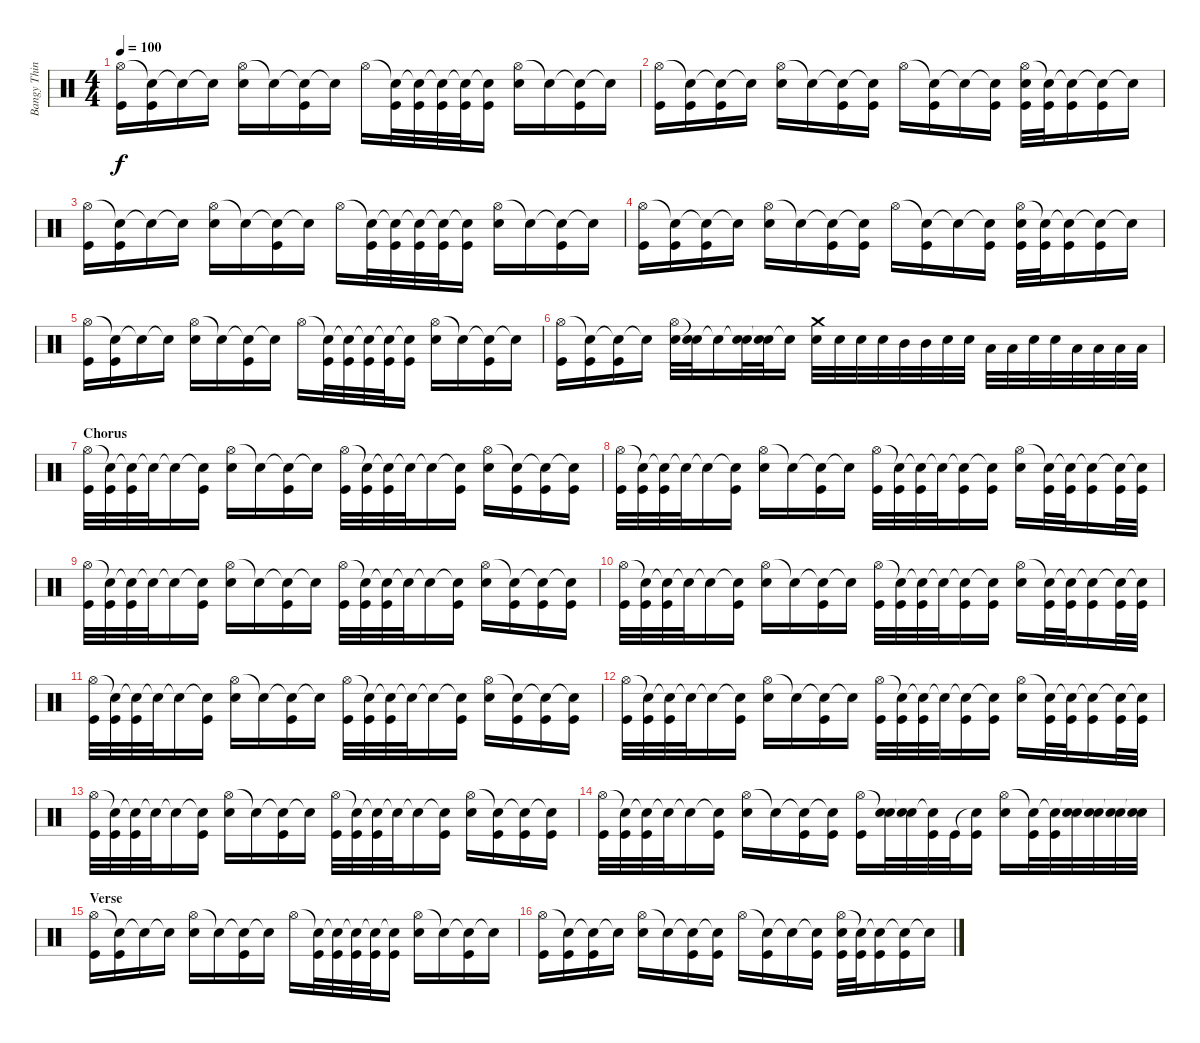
\track ("Bangy Things" "Bangy Thin") {instrument percussion}
\staff {score}
\articulation defaults
\ts (4 4)
\tempo 100
\clef neutral
\ks c
("Hi-Hat (open)" "Kick (hit)").16{dy f} ("Snare (hit)"{t} "Kick (hit)").16 "Snare (hit)"{t}.16 "Snare (hit)"{t}.16 ("Hi-Hat (open)" "Electric Snare (hit)").16 "Snare (hit)"{t}.16 ("Snare (hit)"{t} "Kick (hit)").16 "Snare (hit)"{t}.16 "Hi-Hat (open)".16 ("Snare (hit)"{t} "Kick (hit)").32 ("Snare (hit)"{t} "Kick (hit)").32 ("Snare (hit)"{t} "Kick (hit)").32 ("Snare (hit)"{t} "Kick (hit)").32 ("Snare (hit)"{t} "Kick (hit)").16 ("Hi-Hat (open)" "Electric Snare (hit)").16 "Snare (hit)"{t}.16 ("Snare (hit)"{t} "Kick (hit)").16 "Snare (hit)"{t}.16 |
("Hi-Hat (open)" "Kick (hit)").16 ("Snare (hit)"{t} "Kick (hit)").16 ("Snare (hit)"{t} "Kick (hit)").16 "Snare (hit)"{t}.16 ("Hi-Hat (open)" "Electric Snare (hit)").16 "Snare (hit)"{t}.16 ("Snare (hit)"{t} "Kick (hit)").16 ("Snare (hit)"{t} "Kick (hit)").16 "Hi-Hat (open)".16 ("Snare (hit)"{t} "Kick (hit)").16 "Snare (hit)"{t}.16 ("Snare (hit)"{t} "Kick (hit)").16 ("Hi-Hat (open)" "Electric Snare (hit)" "Kick (hit)").32 ("Snare (hit)"{t} "Kick (hit)").32 ("Snare (hit)"{t} "Kick (hit)").16 ("Snare (hit)"{t} "Kick (hit)").16 "Snare (hit)"{t}.16 |
("Hi-Hat (open)" "Kick (hit)").16 ("Snare (hit)"{t} "Kick (hit)").16 "Snare (hit)"{t}.16 "Snare (hit)"{t}.16 ("Hi-Hat (open)" "Electric Snare (hit)").16 "Snare (hit)"{t}.16 ("Snare (hit)"{t} "Kick (hit)").16 "Snare (hit)"{t}.16 "Hi-Hat (open)".16 ("Snare (hit)"{t} "Kick (hit)").32 ("Snare (hit)"{t} "Kick (hit)").32 ("Snare (hit)"{t} "Kick (hit)").32 ("Snare (hit)"{t} "Kick (hit)").32 ("Snare (hit)"{t} "Kick (hit)").16 ("Hi-Hat (open)" "Electric Snare (hit)").16 "Snare (hit)"{t}.16 ("Snare (hit)"{t} "Kick (hit)").16 "Snare (hit)"{t}.16 |
("Hi-Hat (open)" "Kick (hit)").16 ("Snare (hit)"{t} "Kick (hit)").16 ("Snare (hit)"{t} "Kick (hit)").16 "Snare (hit)"{t}.16 ("Hi-Hat (open)" "Electric Snare (hit)").16 "Snare (hit)"{t}.16 ("Snare (hit)"{t} "Kick (hit)").16 ("Snare (hit)"{t} "Kick (hit)").16 "Hi-Hat (open)".16 ("Snare (hit)"{t} "Kick (hit)").16 "Snare (hit)"{t}.16 ("Snare (hit)"{t} "Kick (hit)").16 ("Hi-Hat (open)" "Electric Snare (hit)" "Kick (hit)").32 ("Snare (hit)"{t} "Kick (hit)").32 ("Snare (hit)"{t} "Kick (hit)").16 ("Snare (hit)"{t} "Kick (hit)").16 "Snare (hit)"{t}.16 |
("Hi-Hat (open)" "Kick (hit)").16 ("Snare (hit)"{t} "Kick (hit)").16 "Snare (hit)"{t}.16 "Snare (hit)"{t}.16 ("Hi-Hat (open)" "Electric Snare (hit)").16 "Snare (hit)"{t}.16 ("Snare (hit)"{t} "Kick (hit)").16 "Snare (hit)"{t}.16 "Hi-Hat (open)".16 ("Snare (hit)"{t} "Kick (hit)").32 ("Snare (hit)"{t} "Kick (hit)").32 ("Snare (hit)"{t} "Kick (hit)").32 ("Snare (hit)"{t} "Kick (hit)").32 ("Snare (hit)"{t} "Kick (hit)").16 ("Hi-Hat (open)" "Electric Snare (hit)").16 "Snare (hit)"{t}.16 ("Snare (hit)"{t} "Kick (hit)").16 "Snare (hit)"{t}.16 |
("Hi-Hat (open)" "Kick (hit)").16 ("Snare (hit)"{t} "Kick (hit)").16 ("Snare (hit)"{t} "Kick (hit)").16 "Snare (hit)"{t}.16 ("Hi-Hat (open)" "Electric Snare (hit)").32 ("Snare (hit)"{t} "Electric Snare (hit)").32 "Snare (hit)"{t}.16 ("Snare (hit)"{t} "Electric Snare (hit)").32 ("Snare (hit)"{t} "Electric Snare (hit)").32 "Snare (hit)"{t}.16 ("Crash medium (hit)" "Electric Snare (hit)").32 "Electric Snare (hit)".32 "Electric Snare (hit)".32 "Electric Snare (hit)".32 "Mid Tom (hit)".32 "Mid Tom (hit)".32 "Electric Snare (hit)".32 "Electric Snare (hit)".32 "Low Tom (hit)".32 "Low Tom (hit)".32 "Electric Snare (hit)".32 "Electric Snare (hit)".32 "Low Floor Tom (hit)".32 "Low Floor Tom (hit)".32 "Low Floor Tom (hit)".32 "Low Floor Tom (hit)".32 |
\section ("" "Chorus")
("Hi-Hat (open)" "Kick (hit)").32 ("Snare (hit)"{t} "Kick (hit)").32 ("Snare (hit)"{t} "Kick (hit)").32 "Snare (hit)"{t}.32 "Snare (hit)"{t}.16 ("Snare (hit)"{t} "Kick (hit)").16 ("Hi-Hat (open)" "Electric Snare (hit)").16 "Snare (hit)"{t}.16 ("Snare (hit)"{t} "Kick (hit)").16 "Snare (hit)"{t}.16 ("Hi-Hat (open)" "Kick (hit)").32 ("Snare (hit)"{t} "Kick (hit)").32 ("Snare (hit)"{t} "Kick (hit)").32 "Snare (hit)"{t}.32 "Snare (hit)"{t}.16 ("Snare (hit)"{t} "Kick (hit)").16 ("Hi-Hat (open)" "Electric Snare (hit)").16 ("Snare (hit)"{t} "Kick (hit)").16 ("Snare (hit)"{t} "Kick (hit)").16 ("Snare (hit)"{t} "Kick (hit)").16 |
("Hi-Hat (open)" "Kick (hit)").32 ("Snare (hit)"{t} "Kick (hit)").32 ("Snare (hit)"{t} "Kick (hit)").32 "Snare (hit)"{t}.32 "Snare (hit)"{t}.16 ("Snare (hit)"{t} "Kick (hit)").16 ("Hi-Hat (open)" "Electric Snare (hit)").16 "Snare (hit)"{t}.16 ("Snare (hit)"{t} "Kick (hit)").16 "Snare (hit)"{t}.16 ("Hi-Hat (open)" "Kick (hit)").32 ("Snare (hit)"{t} "Kick (hit)").32 ("Snare (hit)"{t} "Kick (hit)").32 "Snare (hit)"{t}.32 ("Snare (hit)"{t} "Kick (hit)").16 ("Snare (hit)"{t} "Kick (hit)").16 ("Hi-Hat (open)" "Electric Snare (hit)").16 ("Snare (hit)"{t} "Kick (hit)").32 ("Snare (hit)"{t} "Kick (hit)").32 ("Snare (hit)"{t} "Kick (hit)").16 ("Snare (hit)"{t} "Kick (hit)").32 ("Snare (hit)"{t} "Kick (hit)").32 |
("Hi-Hat (open)" "Kick (hit)").32 ("Snare (hit)"{t} "Kick (hit)").32 ("Snare (hit)"{t} "Kick (hit)").32 "Snare (hit)"{t}.32 "Snare (hit)"{t}.16 ("Snare (hit)"{t} "Kick (hit)").16 ("Hi-Hat (open)" "Electric Snare (hit)").16 "Snare (hit)"{t}.16 ("Snare (hit)"{t} "Kick (hit)").16 "Snare (hit)"{t}.16 ("Hi-Hat (open)" "Kick (hit)").32 ("Snare (hit)"{t} "Kick (hit)").32 ("Snare (hit)"{t} "Kick (hit)").32 "Snare (hit)"{t}.32 "Snare (hit)"{t}.16 ("Snare (hit)"{t} "Kick (hit)").16 ("Hi-Hat (open)" "Electric Snare (hit)").16 ("Snare (hit)"{t} "Kick (hit)").16 ("Snare (hit)"{t} "Kick (hit)").16 ("Snare (hit)"{t} "Kick (hit)").16 |
("Hi-Hat (open)" "Kick (hit)").32 ("Snare (hit)"{t} "Kick (hit)").32 ("Snare (hit)"{t} "Kick (hit)").32 "Snare (hit)"{t}.32 "Snare (hit)"{t}.16 ("Snare (hit)"{t} "Kick (hit)").16 ("Hi-Hat (open)" "Electric Snare (hit)").16 "Snare (hit)"{t}.16 ("Snare (hit)"{t} "Kick (hit)").16 "Snare (hit)"{t}.16 ("Hi-Hat (open)" "Kick (hit)").32 ("Snare (hit)"{t} "Kick (hit)").32 ("Snare (hit)"{t} "Kick (hit)").32 "Snare (hit)"{t}.32 ("Snare (hit)"{t} "Kick (hit)").16 ("Snare (hit)"{t} "Kick (hit)").16 ("Hi-Hat (open)" "Electric Snare (hit)").16 ("Snare (hit)"{t} "Kick (hit)").32 ("Snare (hit)"{t} "Kick (hit)").32 ("Snare (hit)"{t} "Kick (hit)").16 ("Snare (hit)"{t} "Kick (hit)").32 ("Snare (hit)"{t} "Kick (hit)").32 |
("Hi-Hat (open)" "Kick (hit)").32 ("Snare (hit)"{t} "Kick (hit)").32 ("Snare (hit)"{t} "Kick (hit)").32 "Snare (hit)"{t}.32 "Snare (hit)"{t}.16 ("Snare (hit)"{t} "Kick (hit)").16 ("Hi-Hat (open)" "Electric Snare (hit)").16 "Snare (hit)"{t}.16 ("Snare (hit)"{t} "Kick (hit)").16 "Snare (hit)"{t}.16 ("Hi-Hat (open)" "Kick (hit)").32 ("Snare (hit)"{t} "Kick (hit)").32 ("Snare (hit)"{t} "Kick (hit)").32 "Snare (hit)"{t}.32 "Snare (hit)"{t}.16 ("Snare (hit)"{t} "Kick (hit)").16 ("Hi-Hat (open)" "Electric Snare (hit)").16 ("Snare (hit)"{t} "Kick (hit)").16 ("Snare (hit)"{t} "Kick (hit)").16 ("Snare (hit)"{t} "Kick (hit)").16 |
("Hi-Hat (open)" "Kick (hit)").32 ("Snare (hit)"{t} "Kick (hit)").32 ("Snare (hit)"{t} "Kick (hit)").32 "Snare (hit)"{t}.32 "Snare (hit)"{t}.16 ("Snare (hit)"{t} "Kick (hit)").16 ("Hi-Hat (open)" "Electric Snare (hit)").16 "Snare (hit)"{t}.16 ("Snare (hit)"{t} "Kick (hit)").16 "Snare (hit)"{t}.16 ("Hi-Hat (open)" "Kick (hit)").32 ("Snare (hit)"{t} "Kick (hit)").32 ("Snare (hit)"{t} "Kick (hit)").32 "Snare (hit)"{t}.32 ("Snare (hit)"{t} "Kick (hit)").16 ("Snare (hit)"{t} "Kick (hit)").16 ("Hi-Hat (open)" "Electric Snare (hit)").16 ("Snare (hit)"{t} "Kick (hit)").32 ("Snare (hit)"{t} "Kick (hit)").32 ("Snare (hit)"{t} "Kick (hit)").16 ("Snare (hit)"{t} "Kick (hit)").32 ("Snare (hit)"{t} "Kick (hit)").32 |
("Hi-Hat (open)" "Kick (hit)").32 ("Snare (hit)"{t} "Kick (hit)").32 ("Snare (hit)"{t} "Kick (hit)").32 "Snare (hit)"{t}.32 "Snare (hit)"{t}.16 ("Snare (hit)"{t} "Kick (hit)").16 ("Hi-Hat (open)" "Electric Snare (hit)").16 "Snare (hit)"{t}.16 ("Snare (hit)"{t} "Kick (hit)").16 "Snare (hit)"{t}.16 ("Hi-Hat (open)" "Kick (hit)").32 ("Snare (hit)"{t} "Kick (hit)").32 ("Snare (hit)"{t} "Kick (hit)").32 "Snare (hit)"{t}.32 "Snare (hit)"{t}.16 ("Snare (hit)"{t} "Kick (hit)").16 ("Hi-Hat (open)" "Electric Snare (hit)").16 ("Snare (hit)"{t} "Kick (hit)").16 ("Snare (hit)"{t} "Kick (hit)").16 ("Snare (hit)"{t} "Kick (hit)").16 |
("Hi-Hat (open)" "Kick (hit)").32 ("Snare (hit)"{t} "Kick (hit)").32 ("Snare (hit)"{t} "Kick (hit)").32 "Snare (hit)"{t}.32 "Snare (hit)"{t}.16 ("Snare (hit)"{t} "Kick (hit)").16 ("Hi-Hat (open)" "Electric Snare (hit)").16 "Snare (hit)"{t}.16 ("Snare (hit)"{t} "Kick (hit)").16 ("Snare (hit)"{t} "Kick (hit)").16 ("Hi-Hat (open)" "Kick (hit)").16 ("Snare (hit)"{t} "Electric Snare (hit)").32 ("Snare (hit)"{t} "Electric Snare (hit)").32 ("Snare (hit)"{t} "Kick (hit)").32 "Kick (hit)".32 ("Snare (hit)"{t} "Kick (hit)").16 ("Hi-Hat (open)" "Electric Snare (hit)").16 ("Snare (hit)"{t} "Kick (hit)").32 ("Snare (hit)"{t} "Kick (hit)").32 ("Snare (hit)"{t} "Electric Snare (hit)").32 ("Snare (hit)"{t} "Electric Snare (hit)").32 ("Snare (hit)"{t} "Electric Snare (hit)").32 ("Snare (hit)"{t} "Electric Snare (hit)").32 |
\section ("" "Verse")
("Hi-Hat (open)" "Kick (hit)").16 ("Snare (hit)"{t} "Kick (hit)").16 "Snare (hit)"{t}.16 "Snare (hit)"{t}.16 ("Hi-Hat (open)" "Electric Snare (hit)").16 "Snare (hit)"{t}.16 ("Snare (hit)"{t} "Kick (hit)").16 "Snare (hit)"{t}.16 "Hi-Hat (open)".16 ("Snare (hit)"{t} "Kick (hit)").32 ("Snare (hit)"{t} "Kick (hit)").32 ("Snare (hit)"{t} "Kick (hit)").32 ("Snare (hit)"{t} "Kick (hit)").32 ("Snare (hit)"{t} "Kick (hit)").16 ("Hi-Hat (open)" "Electric Snare (hit)").16 "Snare (hit)"{t}.16 ("Snare (hit)"{t} "Kick (hit)").16 "Snare (hit)"{t}.16 |
("Hi-Hat (open)" "Kick (hit)").16 ("Snare (hit)"{t} "Kick (hit)").16 ("Snare (hit)"{t} "Kick (hit)").16 "Snare (hit)"{t}.16 ("Hi-Hat (open)" "Electric Snare (hit)").16 "Snare (hit)"{t}.16 ("Snare (hit)"{t} "Kick (hit)").16 ("Snare (hit)"{t} "Kick (hit)").16 "Hi-Hat (open)".16 ("Snare (hit)"{t} "Kick (hit)").16 "Snare (hit)"{t}.16 ("Snare (hit)"{t} "Kick (hit)").16 ("Hi-Hat (open)" "Electric Snare (hit)" "Kick (hit)").32 ("Snare (hit)"{t} "Kick (hit)").32 ("Snare (hit)"{t} "Kick (hit)").16 ("Snare (hit)"{t} "Kick (hit)").16 "Snare (hit)"{t}.16
